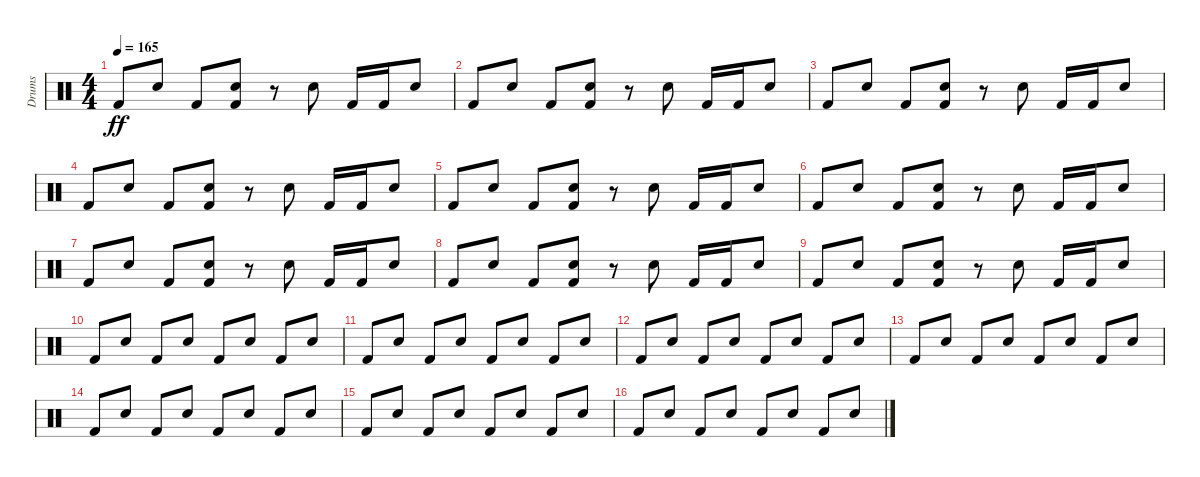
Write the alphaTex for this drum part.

\track ("Drums" "Drums") {instrument percussion}
\staff {score}
\articulation defaults
\ts (4 4)
\tempo 165
\clef neutral
\ks c "Kick (hit) 2".8{dy ff} "Snare (hit) 2".8 "Kick (hit) 2".8
("Snare (hit) 2" "Kick (hit) 2").8 r.8 "Snare (hit) 2".8 "Kick (hit) 2".16 "Kick (hit) 2".16 "Snare (hit) 2".8 |
"Kick (hit) 2".8 "Snare (hit) 2".8 "Kick (hit) 2".8 ("Snare (hit) 2" "Kick (hit) 2").8 r.8 "Snare (hit) 2".8 "Kick (hit) 2".16 "Kick (hit) 2".16 "Snare (hit) 2".8 |
"Kick (hit) 2".8 "Snare (hit) 2".8 "Kick (hit) 2".8 ("Kick (hit) 2" "Snare (hit) 2").8 r.8 "Snare (hit) 2".8 "Kick (hit) 2".16 "Kick (hit) 2".16 "Snare (hit) 2".8 |
"Kick (hit) 2".8 "Snare (hit) 2".8 "Kick (hit) 2".8 ("Snare (hit) 2" "Kick (hit) 2").8 r.8 "Snare (hit) 2".8 "Kick (hit) 2".16 "Kick (hit) 2".16 "Snare (hit) 2".8 |
"Kick (hit) 2".8 "Snare (hit) 2".8 "Kick (hit) 2".8 ("Kick (hit) 2" "Snare (hit) 2").8 r.8 "Snare (hit) 2".8 "Kick (hit) 2".16 "Kick (hit) 2".16 "Snare (hit) 2".8 |
"Kick (hit) 2".8 "Snare (hit) 2".8 "Kick (hit) 2".8 ("Snare (hit) 2" "Kick (hit) 2").8 r.8 "Snare (hit) 2".8 "Kick (hit) 2".16 "Kick (hit) 2".16 "Snare (hit) 2".8 |
"Kick (hit) 2".8 "Snare (hit) 2".8 "Kick (hit) 2".8 ("Kick (hit) 2" "Snare (hit) 2").8 r.8 "Snare (hit) 2".8 "Kick (hit) 2".16 "Kick (hit) 2".16 "Snare (hit) 2".8 |
"Kick (hit) 2".8 "Snare (hit) 2".8 "Kick (hit) 2".8 ("Snare (hit) 2" "Kick (hit) 2").8 r.8 "Snare (hit) 2".8 "Kick (hit) 2".16 "Kick (hit) 2".16 "Snare (hit) 2".8 |
"Kick (hit) 2".8 "Snare (hit) 2".8 "Kick (hit) 2".8 ("Kick (hit) 2" "Snare (hit) 2").8 r.8 "Snare (hit) 2".8 "Kick (hit) 2".16 "Kick (hit) 2".16 "Snare (hit) 2".8 |
"Kick (hit) 2".8 "Snare (hit) 2".8 "Kick (hit) 2".8 "Snare (hit) 2".8 "Kick (hit) 2".8 "Snare (hit) 2".8 "Kick (hit) 2".8 "Snare (hit) 2".8 |
"Kick (hit) 2".8 "Snare (hit) 2".8 "Kick (hit) 2".8 "Snare (hit) 2".8 "Kick (hit) 2".8 "Snare (hit) 2".8 "Kick (hit) 2".8 "Snare (hit) 2".8 |
"Kick (hit) 2".8 "Snare (hit) 2".8 "Kick (hit) 2".8 "Snare (hit) 2".8 "Kick (hit) 2".8 "Snare (hit) 2".8 "Kick (hit) 2".8 "Snare (hit) 2".8 |
"Kick (hit) 2".8 "Snare (hit) 2".8 "Kick (hit) 2".8 "Snare (hit) 2".8 "Kick (hit) 2".8 "Snare (hit) 2".8 "Kick (hit) 2".8 "Snare (hit) 2".8 |
"Kick (hit) 2".8 "Snare (hit) 2".8 "Kick (hit) 2".8 "Snare (hit) 2".8 "Kick (hit) 2".8 "Snare (hit) 2".8 "Kick (hit) 2".8 "Snare (hit) 2".8 |
"Kick (hit) 2".8 "Snare (hit) 2".8 "Kick (hit) 2".8 "Snare (hit) 2".8 "Kick (hit) 2".8 "Snare (hit) 2".8 "Kick (hit) 2".8 "Snare (hit) 2".8 |
"Kick (hit) 2".8 "Snare (hit) 2".8 "Kick (hit) 2".8 "Snare (hit) 2".8 "Kick (hit) 2".8 "Snare (hit) 2".8 "Kick (hit) 2".8 "Snare (hit) 2".8
